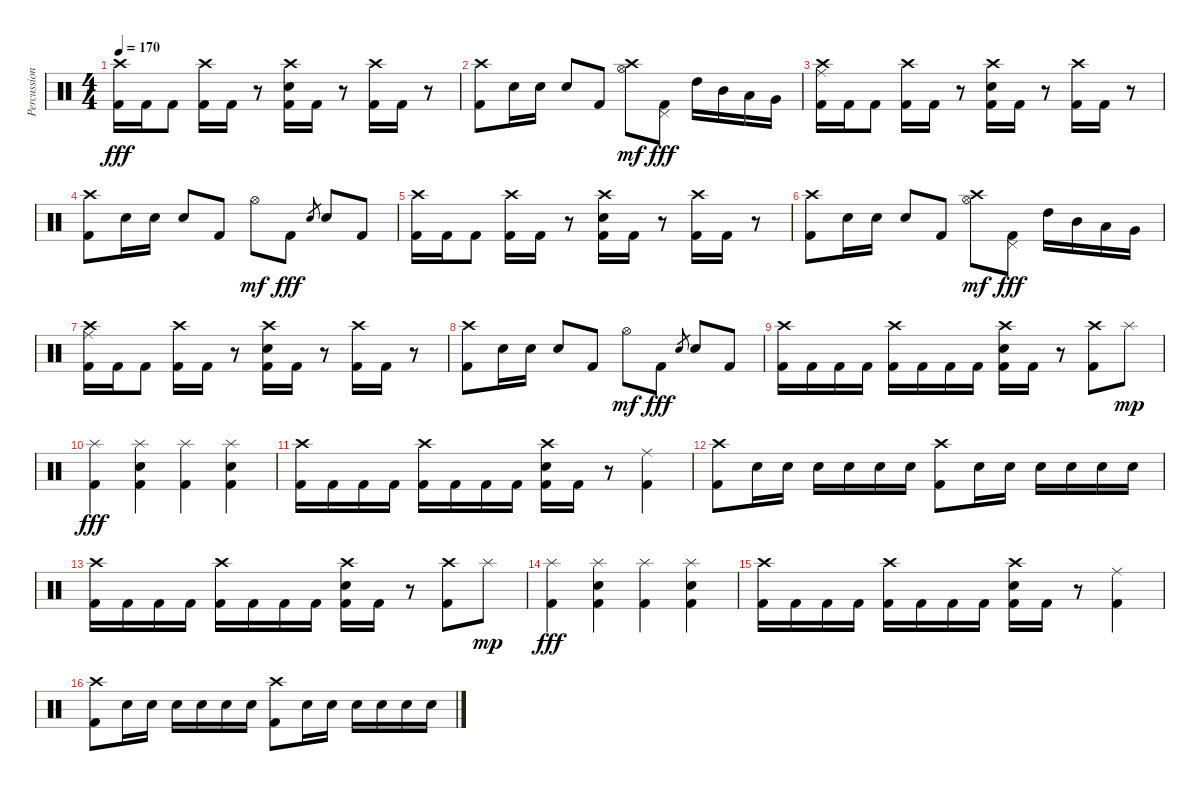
\track ("Percussion" "Percussion") {instrument percussion}
\staff {score}
\articulation defaults
\ts (4 4)
\tempo 170
\clef neutral
\ks c
("Crash high (hit)" "Kick (hit) 2").16{dy fff} "Kick (hit) 2".16 "Kick (hit) 2".8 ("Crash high (hit)" "Kick (hit) 2").16 "Kick (hit) 2".16 r.8 ("Crash high (hit)" "Electric Snare (hit)" "Kick (hit) 2").16 "Kick (hit) 2".16 r.8 ("Crash high (hit)" "Kick (hit) 2").16 "Kick (hit) 2".16 r.8 |
("Crash high (hit)" "Kick (hit) 2").8 "Electric Snare (hit)".16 "Electric Snare (hit)".16 "Electric Snare (hit)".8 "Kick (hit) 2".8 ("Crash high (hit)" "Hi-Hat (open)").8{dy mf} ("Pedal Hi-Hat (hit)" "Kick (hit) 2").8{dy fff} "High Tom (hit)".16 "Mid Tom (hit)".16 "Low Tom (hit)".16 "Very Low Tom (hit)".16 |
("Crash high (hit)" "Ride (middle)" "Kick (hit) 2").16 "Kick (hit) 2".16 "Kick (hit) 2".8 ("Crash high (hit)" "Kick (hit) 2").16 "Kick (hit) 2".16 r.8 ("Crash high (hit)" "Electric Snare (hit)" "Kick (hit) 2").16 "Kick (hit) 2".16 r.8 ("Crash high (hit)" "Kick (hit) 2").16 "Kick (hit) 2".16 r.8 |
("Crash high (hit)" "Kick (hit) 2").8 "Electric Snare (hit)".16 "Electric Snare (hit)".16 "Electric Snare (hit)".8 "Kick (hit) 2".8 "Hi-Hat (open)".8{dy mf} "Kick (hit) 2".8{dy fff} "Electric Snare (hit)".8{gr} "Electric Snare (hit)".8 "Kick (hit) 2".8 |
("Crash high (hit)" "Kick (hit) 2").16 "Kick (hit) 2".16 "Kick (hit) 2".8 ("Crash high (hit)" "Kick (hit) 2").16 "Kick (hit) 2".16 r.8 ("Crash high (hit)" "Electric Snare (hit)" "Kick (hit) 2").16 "Kick (hit) 2".16 r.8 ("Crash high (hit)" "Kick (hit) 2").16 "Kick (hit) 2".16 r.8 |
("Crash high (hit)" "Kick (hit) 2").8 "Electric Snare (hit)".16 "Electric Snare (hit)".16 "Electric Snare (hit)".8 "Kick (hit) 2".8 ("Crash high (hit)" "Hi-Hat (open)").8{dy mf} ("Pedal Hi-Hat (hit)" "Kick (hit) 2").8{dy fff} "High Tom (hit)".16 "Mid Tom (hit)".16 "Low Tom (hit)".16 "Very Low Tom (hit)".16 |
("Crash high (hit)" "Ride (middle)" "Kick (hit) 2").16 "Kick (hit) 2".16 "Kick (hit) 2".8 ("Crash high (hit)" "Kick (hit) 2").16 "Kick (hit) 2".16 r.8 ("Crash high (hit)" "Electric Snare (hit)" "Kick (hit) 2").16 "Kick (hit) 2".16 r.8 ("Crash high (hit)" "Kick (hit) 2").16 "Kick (hit) 2".16 r.8 |
("Crash high (hit)" "Kick (hit) 2").8 "Electric Snare (hit)".16 "Electric Snare (hit)".16 "Electric Snare (hit)".8 "Kick (hit) 2".8 "Hi-Hat (open)".8{dy mf} "Kick (hit) 2".8{dy fff} "Electric Snare (hit)".8{gr} "Electric Snare (hit)".8 "Kick (hit) 2".8 |
("Crash high (hit)" "Kick (hit) 2").16 "Kick (hit) 2".16 "Kick (hit) 2".16 "Kick (hit) 2".16 ("Crash high (hit)" "Kick (hit) 2").16 "Kick (hit) 2".16 "Kick (hit) 2".16 "Kick (hit) 2".16 ("Crash high (hit)" "Electric Snare (hit)" "Kick (hit) 2").16 "Kick (hit) 2".16 r.8 ("Crash high (hit)" "Kick (hit) 2").8 "Splash (hit)".8{dy mp} |
("Splash (hit)" "Kick (hit) 2").4{dy fff} ("Splash (hit)" "Electric Snare (hit)" "Kick (hit) 2").4 ("Splash (hit)" "Kick (hit) 2").4 ("Splash (hit)" "Electric Snare (hit)" "Kick (hit) 2").4 |
("Crash high (hit)" "Kick (hit) 2").16 "Kick (hit) 2".16 "Kick (hit) 2".16 "Kick (hit) 2".16 ("Crash high (hit)" "Kick (hit) 2").16 "Kick (hit) 2".16 "Kick (hit) 2".16 "Kick (hit) 2".16 ("Crash high (hit)" "Electric Snare (hit)" "Kick (hit) 2").16 "Kick (hit) 2".16 r.8 ("Ride (middle)" "Kick (hit) 2").4 |
("Crash high (hit)" "Kick (hit) 2").8 "Electric Snare (hit)".16 "Electric Snare (hit)".16 "Electric Snare (hit)".16 "Electric Snare (hit)".16 "Electric Snare (hit)".16 "Electric Snare (hit)".16 ("Crash high (hit)" "Kick (hit) 2").8 "Electric Snare (hit)".16 "Electric Snare (hit)".16 "Electric Snare (hit)".16 "Electric Snare (hit)".16 "Electric Snare (hit)".16 "Electric Snare (hit)".16 |
("Crash high (hit)" "Kick (hit) 2").16 "Kick (hit) 2".16 "Kick (hit) 2".16 "Kick (hit) 2".16 ("Crash high (hit)" "Kick (hit) 2").16 "Kick (hit) 2".16 "Kick (hit) 2".16 "Kick (hit) 2".16 ("Crash high (hit)" "Electric Snare (hit)" "Kick (hit) 2").16 "Kick (hit) 2".16 r.8 ("Crash high (hit)" "Kick (hit) 2").8 "Splash (hit)".8{dy mp} |
("Splash (hit)" "Kick (hit) 2").4{dy fff} ("Splash (hit)" "Electric Snare (hit)" "Kick (hit) 2").4 ("Splash (hit)" "Kick (hit) 2").4 ("Splash (hit)" "Electric Snare (hit)" "Kick (hit) 2").4 |
("Crash high (hit)" "Kick (hit) 2").16 "Kick (hit) 2".16 "Kick (hit) 2".16 "Kick (hit) 2".16 ("Crash high (hit)" "Kick (hit) 2").16 "Kick (hit) 2".16 "Kick (hit) 2".16 "Kick (hit) 2".16 ("Crash high (hit)" "Electric Snare (hit)" "Kick (hit) 2").16 "Kick (hit) 2".16 r.8 ("Ride (middle)" "Kick (hit) 2").4 |
("Crash high (hit)" "Kick (hit) 2").8 "Electric Snare (hit)".16 "Electric Snare (hit)".16 "Electric Snare (hit)".16 "Electric Snare (hit)".16 "Electric Snare (hit)".16 "Electric Snare (hit)".16 ("Crash high (hit)" "Kick (hit) 2").8 "Electric Snare (hit)".16 "Electric Snare (hit)".16 "Electric Snare (hit)".16 "Electric Snare (hit)".16 "Electric Snare (hit)".16 "Electric Snare (hit)".16
